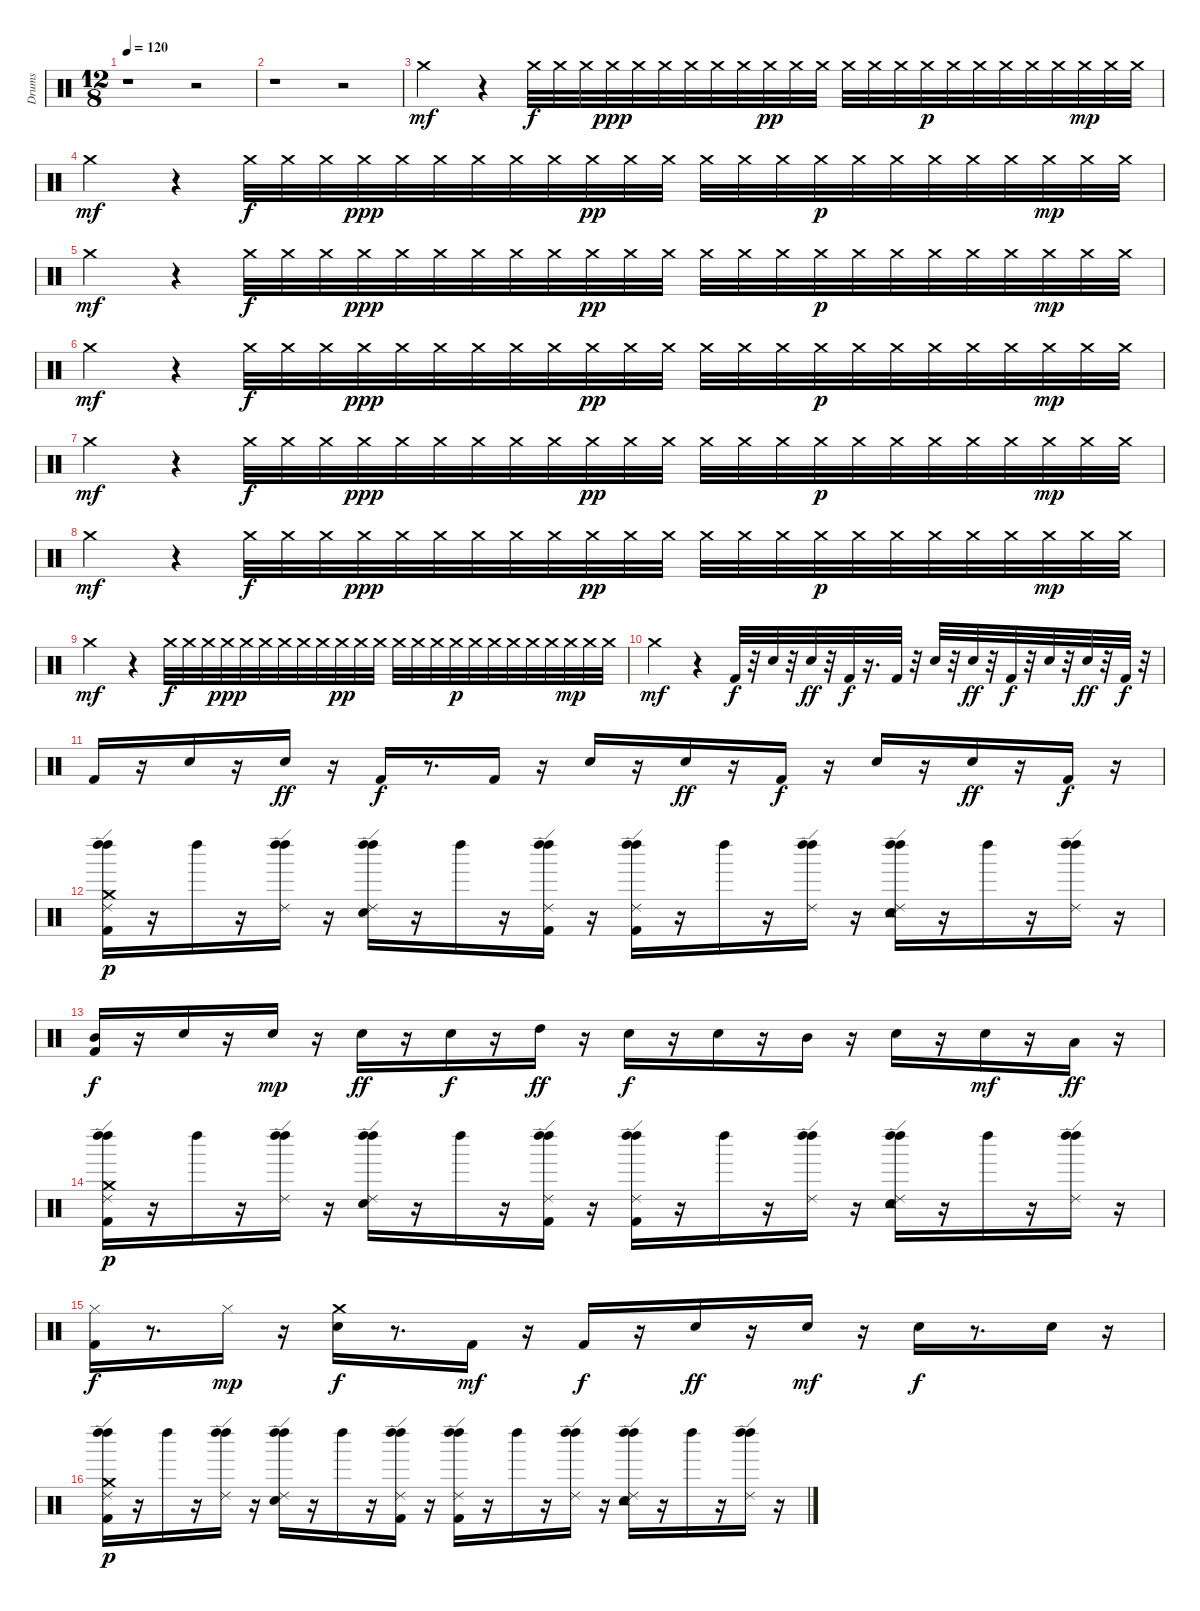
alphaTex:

\track ("Drums" "Drums") {instrument percussion}
\staff {score}
\articulation defaults
\ts (12 8)
\tempo 120
\clef neutral
\ks c
r.1{dy mf} r.2 |
r.1 r.2 |
"Crash medium (hit)".2 r.4 "Crash medium (hit)".32{dy f} "Crash medium (hit)".32 "Crash medium (hit)".32 "Crash medium (hit)".32{dy ppp} "Crash medium (hit)".32 "Crash medium (hit)".32 "Crash medium (hit)".32 "Crash medium (hit)".32 "Crash medium (hit)".32 "Crash medium (hit)".32{dy pp} "Crash medium (hit)".32 "Crash medium (hit)".32 "Crash medium (hit)".32 "Crash medium (hit)".32 "Crash medium (hit)".32 "Crash medium (hit)".32{dy p} "Crash medium (hit)".32 "Crash medium (hit)".32 "Crash medium (hit)".32 "Crash medium (hit)".32 "Crash medium (hit)".32 "Crash medium (hit)".32{dy mp} "Crash medium (hit)".32 "Crash medium (hit)".32 |
"Crash medium (hit)".2{dy mf} r.4 "Crash medium (hit)".32{dy f} "Crash medium (hit)".32 "Crash medium (hit)".32 "Crash medium (hit)".32{dy ppp} "Crash medium (hit)".32 "Crash medium (hit)".32 "Crash medium (hit)".32 "Crash medium (hit)".32 "Crash medium (hit)".32 "Crash medium (hit)".32{dy pp} "Crash medium (hit)".32 "Crash medium (hit)".32 "Crash medium (hit)".32 "Crash medium (hit)".32 "Crash medium (hit)".32 "Crash medium (hit)".32{dy p} "Crash medium (hit)".32 "Crash medium (hit)".32 "Crash medium (hit)".32 "Crash medium (hit)".32 "Crash medium (hit)".32 "Crash medium (hit)".32{dy mp} "Crash medium (hit)".32 "Crash medium (hit)".32 |
"Crash medium (hit)".2{dy mf} r.4 "Crash medium (hit)".32{dy f} "Crash medium (hit)".32 "Crash medium (hit)".32 "Crash medium (hit)".32{dy ppp} "Crash medium (hit)".32 "Crash medium (hit)".32 "Crash medium (hit)".32 "Crash medium (hit)".32 "Crash medium (hit)".32 "Crash medium (hit)".32{dy pp} "Crash medium (hit)".32 "Crash medium (hit)".32 "Crash medium (hit)".32 "Crash medium (hit)".32 "Crash medium (hit)".32 "Crash medium (hit)".32{dy p} "Crash medium (hit)".32 "Crash medium (hit)".32 "Crash medium (hit)".32 "Crash medium (hit)".32 "Crash medium (hit)".32 "Crash medium (hit)".32{dy mp} "Crash medium (hit)".32 "Crash medium (hit)".32 |
"Crash medium (hit)".2{dy mf} r.4 "Crash medium (hit)".32{dy f} "Crash medium (hit)".32 "Crash medium (hit)".32 "Crash medium (hit)".32{dy ppp} "Crash medium (hit)".32 "Crash medium (hit)".32 "Crash medium (hit)".32 "Crash medium (hit)".32 "Crash medium (hit)".32 "Crash medium (hit)".32{dy pp} "Crash medium (hit)".32 "Crash medium (hit)".32 "Crash medium (hit)".32 "Crash medium (hit)".32 "Crash medium (hit)".32 "Crash medium (hit)".32{dy p} "Crash medium (hit)".32 "Crash medium (hit)".32 "Crash medium (hit)".32 "Crash medium (hit)".32 "Crash medium (hit)".32 "Crash medium (hit)".32{dy mp} "Crash medium (hit)".32 "Crash medium (hit)".32 |
"Crash medium (hit)".2{dy mf} r.4 "Crash medium (hit)".32{dy f} "Crash medium (hit)".32 "Crash medium (hit)".32 "Crash medium (hit)".32{dy ppp} "Crash medium (hit)".32 "Crash medium (hit)".32 "Crash medium (hit)".32 "Crash medium (hit)".32 "Crash medium (hit)".32 "Crash medium (hit)".32{dy pp} "Crash medium (hit)".32 "Crash medium (hit)".32 "Crash medium (hit)".32 "Crash medium (hit)".32 "Crash medium (hit)".32 "Crash medium (hit)".32{dy p} "Crash medium (hit)".32 "Crash medium (hit)".32 "Crash medium (hit)".32 "Crash medium (hit)".32 "Crash medium (hit)".32 "Crash medium (hit)".32{dy mp} "Crash medium (hit)".32 "Crash medium (hit)".32 |
"Crash medium (hit)".2{dy mf} r.4 "Crash medium (hit)".32{dy f} "Crash medium (hit)".32 "Crash medium (hit)".32 "Crash medium (hit)".32{dy ppp} "Crash medium (hit)".32 "Crash medium (hit)".32 "Crash medium (hit)".32 "Crash medium (hit)".32 "Crash medium (hit)".32 "Crash medium (hit)".32{dy pp} "Crash medium (hit)".32 "Crash medium (hit)".32 "Crash medium (hit)".32 "Crash medium (hit)".32 "Crash medium (hit)".32 "Crash medium (hit)".32{dy p} "Crash medium (hit)".32 "Crash medium (hit)".32 "Crash medium (hit)".32 "Crash medium (hit)".32 "Crash medium (hit)".32 "Crash medium (hit)".32{dy mp} "Crash medium (hit)".32 "Crash medium (hit)".32 |
"Crash medium (hit)".2{dy mf} r.4 "Crash medium (hit)".32{dy f} "Crash medium (hit)".32 "Crash medium (hit)".32 "Crash medium (hit)".32{dy ppp} "Crash medium (hit)".32 "Crash medium (hit)".32 "Crash medium (hit)".32 "Crash medium (hit)".32 "Crash medium (hit)".32 "Crash medium (hit)".32{dy pp} "Crash medium (hit)".32 "Crash medium (hit)".32 "Crash medium (hit)".32 "Crash medium (hit)".32 "Crash medium (hit)".32 "Crash medium (hit)".32{dy p} "Crash medium (hit)".32 "Crash medium (hit)".32 "Crash medium (hit)".32 "Crash medium (hit)".32 "Crash medium (hit)".32 "Crash medium (hit)".32{dy mp} "Crash medium (hit)".32 "Crash medium (hit)".32 |
"Crash medium (hit)".2{dy mf} r.4 "Kick (hit) 2".32{dy f} r.32 "Snare (hit) 2".32 r.32 "Snare (hit) 2".32{dy ff} r.32 "Kick (hit) 2".32{dy f} r.16{d} "Kick (hit) 2".32 r.32 "Snare (hit) 2".32 r.32 "Snare (hit) 2".32{dy ff} r.32 "Kick (hit) 2".32{dy f} r.32 "Snare (hit) 2".32 r.32 "Snare (hit) 2".32{dy ff} r.32 "Kick (hit) 2".32{dy f} r.32 |
"Kick (hit) 2".16 r.16 "Snare (hit) 2".16 r.16 "Snare (hit) 2".16{dy ff} r.16 "Kick (hit) 2".16{dy f} r.8{d} "Kick (hit) 2".16 r.16 "Snare (hit) 2".16 r.16 "Snare (hit) 2".16{dy ff} r.16 "Kick (hit) 2".16{dy f} r.16 "Snare (hit) 2".16 r.16 "Snare (hit) 2".16{dy ff} r.16 "Kick (hit) 2".16{dy f} r.16 |
("Kick (hit) 2" "Ride (edge) 2" "Crash medium (hit)" "Left Maraca (hit)" "Left Maraca (hit)").16{dy p} r.16 "Left Maraca (hit)".16 r.16 ("Ride (edge) 2" "Left Maraca (hit)" "Left Maraca (hit)").16 r.16 ("Snare (hit) 2" "Ride (edge) 2" "Left Maraca (hit)" "Left Maraca (hit)").16 r.16 "Left Maraca (hit)".16 r.16 ("Kick (hit) 2" "Ride (edge) 2" "Left Maraca (hit)" "Left Maraca (hit)").16 r.16 ("Kick (hit) 2" "Ride (edge) 2" "Left Maraca (hit)" "Left Maraca (hit)").16 r.16 "Left Maraca (hit)".16 r.16 ("Ride (edge) 2" "Left Maraca (hit)" "Left Maraca (hit)").16 r.16 ("Snare (hit) 2" "Ride (edge) 2" "Tambourine (hit)" "Left Maraca (hit)" "Left Maraca (hit)").16 r.16 "Left Maraca (hit)".16 r.16 ("Ride (edge) 2" "Left Maraca (hit)" "Left Maraca (hit)").16 r.16 |
("Kick (hit) 2" "Mid Tom (hit)").16{dy f} r.16 "Snare (hit) 2".16 r.16 "Snare (hit) 2".16{dy mp} r.16 "Snare (hit) 2".16{dy ff} r.16 "Snare (hit) 2".16{dy f} r.16 "High Tom (hit)".16{dy ff} r.16 "Snare (hit) 2".16{dy f} r.16 "Snare (hit) 2".16 r.16 "Mid Tom (hit)".16 r.16 "Snare (hit) 2".16 r.16 "Snare (hit) 2".16{dy mf} r.16 "Low Floor Tom (hit)".16{dy ff} r.16 |
("Kick (hit) 2" "Ride (edge) 2" "Crash medium (hit)" "Left Maraca (hit)" "Left Maraca (hit)").16{dy p} r.16 "Left Maraca (hit)".16 r.16 ("Ride (edge) 2" "Left Maraca (hit)" "Left Maraca (hit)").16 r.16 ("Snare (hit) 2" "Ride (edge) 2" "Left Maraca (hit)" "Left Maraca (hit)").16 r.16 "Left Maraca (hit)".16 r.16 ("Kick (hit) 2" "Ride (edge) 2" "Left Maraca (hit)" "Left Maraca (hit)").16 r.16 ("Kick (hit) 2" "Ride (edge) 2" "Left Maraca (hit)" "Left Maraca (hit)").16 r.16 "Left Maraca (hit)".16 r.16 ("Ride (edge) 2" "Left Maraca (hit)" "Left Maraca (hit)").16 r.16 ("Snare (hit) 2" "Ride (edge) 2" "Tambourine (hit)" "Left Maraca (hit)" "Left Maraca (hit)").16 r.16 "Left Maraca (hit)".16 r.16 ("Ride (edge) 2" "Left Maraca (hit)" "Left Maraca (hit)").16 r.16 |
("Kick (hit) 2" "Hi-Hat (closed)").16{dy f} r.8{d} "Hi-Hat (closed)".16{dy mp} r.16 ("Snare (hit) 2" "Crash medium (hit)").16{dy f} r.8{d} "Kick (hit) 2".16{dy mf} r.16 "Kick (hit) 2".16{dy f} r.16 "Snare (hit) 2".16{dy ff} r.16 "Snare (hit) 2".16{dy mf} r.16 "Snare (hit) 2".16{dy f} r.8{d} "Snare (hit) 2".16 r.16 |
("Kick (hit) 2" "Ride (edge) 2" "Crash medium (hit)" "Left Maraca (hit)" "Left Maraca (hit)").16{dy p} r.16 "Left Maraca (hit)".16 r.16 ("Ride (edge) 2" "Left Maraca (hit)" "Left Maraca (hit)").16 r.16 ("Snare (hit) 2" "Ride (edge) 2" "Left Maraca (hit)" "Left Maraca (hit)").16 r.16 "Left Maraca (hit)".16 r.16 ("Kick (hit) 2" "Ride (edge) 2" "Left Maraca (hit)" "Left Maraca (hit)").16 r.16 ("Kick (hit) 2" "Ride (edge) 2" "Left Maraca (hit)" "Left Maraca (hit)").16 r.16 "Left Maraca (hit)".16 r.16 ("Ride (edge) 2" "Left Maraca (hit)" "Left Maraca (hit)").16 r.16 ("Snare (hit) 2" "Ride (edge) 2" "Tambourine (hit)" "Left Maraca (hit)" "Left Maraca (hit)").16 r.16 "Left Maraca (hit)".16 r.16 ("Ride (edge) 2" "Left Maraca (hit)" "Left Maraca (hit)").16 r.16
